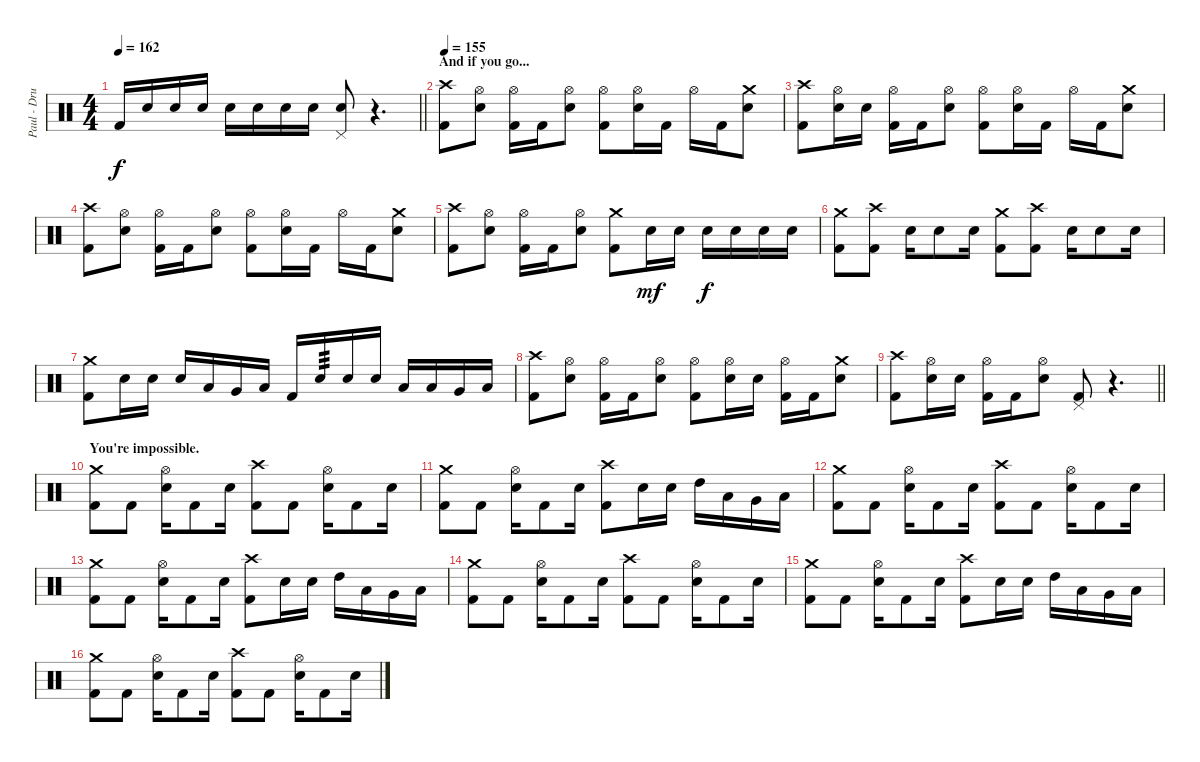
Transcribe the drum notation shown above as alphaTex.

\track ("Paul - Drums" "Paul - Dru") {instrument percussion}
\staff {score}
\articulation defaults
\ts (4 4)
\tempo 162
\clef neutral
\barLineRight lightlight
\ks c "Kick (hit) 2".16{dy f} "Electric Snare (hit)".16 "Electric Snare (hit)".16 "Electric Snare (hit)".16 "Electric Snare (hit)".16 "Electric Snare (hit)".16 "Electric Snare (hit)".16 "Electric Snare (hit)".16
("Pedal Hi-Hat (hit)" "Electric Snare (hit)").8 r.4{d} |
\section ("" "And if you go...")
\tempo 155
("Crash high (hit)" "Kick (hit) 2").8 ("Hi-Hat (open)" "Electric Snare (hit)").8 ("Hi-Hat (open)" "Kick (hit) 2").16 "Kick (hit) 2".16 ("Hi-Hat (open)" "Electric Snare (hit)").8 ("Hi-Hat (open)" "Kick (hit) 2").8 ("Hi-Hat (open)" "Electric Snare (hit)").16 "Kick (hit) 2".16 "Hi-Hat (open)".16 "Kick (hit) 2".16 ("Crash medium (hit)" "Electric Snare (hit)").8 |
("Crash high (hit)" "Kick (hit) 2").8 ("Hi-Hat (open)" "Electric Snare (hit)").16 "Electric Snare (hit)".16 ("Hi-Hat (open)" "Kick (hit) 2").16 "Kick (hit) 2".16 ("Hi-Hat (open)" "Electric Snare (hit)").8 ("Hi-Hat (open)" "Kick (hit) 2").8 ("Hi-Hat (open)" "Electric Snare (hit)").16 "Kick (hit) 2".16 "Hi-Hat (open)".16 "Kick (hit) 2".16 ("Crash medium (hit)" "Electric Snare (hit)").8 |
("Crash high (hit)" "Kick (hit) 2").8 ("Hi-Hat (open)" "Electric Snare (hit)").8 ("Hi-Hat (open)" "Kick (hit) 2").16 "Kick (hit) 2".16 ("Hi-Hat (open)" "Electric Snare (hit)").8 ("Hi-Hat (open)" "Kick (hit) 2").8 ("Hi-Hat (open)" "Electric Snare (hit)").16 "Kick (hit) 2".16 "Hi-Hat (open)".16 "Kick (hit) 2".16 ("Crash medium (hit)" "Electric Snare (hit)").8 |
("Crash high (hit)" "Kick (hit) 2").8 ("Hi-Hat (open)" "Electric Snare (hit)").8 ("Hi-Hat (open)" "Kick (hit) 2").16 "Kick (hit) 2".16 ("Hi-Hat (open)" "Electric Snare (hit)").8 ("Crash medium (hit)" "Kick (hit) 2").8 "Electric Snare (hit)".16{dy mf} "Electric Snare (hit)".16 "Electric Snare (hit)".16{dy f} "Electric Snare (hit)".16 "Electric Snare (hit)".16 "Electric Snare (hit)".16 |
("Crash medium (hit)" "Kick (hit) 2").8 ("Crash high (hit)" "Kick (hit) 2").8 "Electric Snare (hit)".16 "Electric Snare (hit)".8 "Electric Snare (hit)".16 ("Crash medium (hit)" "Kick (hit) 2").8 ("Crash high (hit)" "Kick (hit) 2").8 "Electric Snare (hit)".16 "Electric Snare (hit)".8 "Electric Snare (hit)".16 |
("Crash medium (hit)" "Kick (hit) 2").8 "Electric Snare (hit)".16 "Electric Snare (hit)".16 "Electric Snare (hit)".16 "Low Tom (hit)".16 "Very Low Tom (hit)".16 "Low Floor Tom (hit)".16 "Kick (hit) 2".16 "Electric Snare (hit)".16{tp 3} "Electric Snare (hit)".16 "Electric Snare (hit)".16 "Low Tom (hit)".16 "Low Tom (hit)".16 "Very Low Tom (hit)".16 "Low Floor Tom (hit)".16 |
("Crash high (hit)" "Kick (hit) 2").8 ("Hi-Hat (open)" "Electric Snare (hit)").8 ("Hi-Hat (open)" "Kick (hit) 2").16 "Kick (hit) 2".16 ("Hi-Hat (open)" "Electric Snare (hit)").8 ("Hi-Hat (open)" "Kick (hit) 2").8 ("Hi-Hat (open)" "Electric Snare (hit)").16 "Electric Snare (hit)".16 ("Hi-Hat (open)" "Kick (hit) 2").16 "Kick (hit) 2".16 ("Crash medium (hit)" "Electric Snare (hit)").8 |
\barLineRight lightlight
("Crash high (hit)" "Kick (hit) 2").8 ("Hi-Hat (open)" "Electric Snare (hit)").16 "Electric Snare (hit)".16 ("Hi-Hat (open)" "Kick (hit) 2").16 "Kick (hit) 2".16 ("Hi-Hat (open)" "Electric Snare (hit)").8 ("Pedal Hi-Hat (hit)" "Kick (hit) 2").8 r.4{d} |
\section ("" "You're impossible.")
("Crash medium (hit)" "Kick (hit) 2").8 "Kick (hit) 2".8 ("Hi-Hat (open)" "Electric Snare (hit)").16 "Kick (hit) 2".8 "Electric Snare (hit)".16 ("Crash high (hit)" "Kick (hit) 2").8 "Kick (hit) 2".8 ("Hi-Hat (open)" "Electric Snare (hit)").16 "Kick (hit) 2".8 "Electric Snare (hit)".16 |
("Crash medium (hit)" "Kick (hit) 2").8 "Kick (hit) 2".8 ("Hi-Hat (open)" "Electric Snare (hit)").16 "Kick (hit) 2".8 "Electric Snare (hit)".16 ("Crash high (hit)" "Kick (hit) 2").8 "Electric Snare (hit)".16 "Electric Snare (hit)".16 "High Tom (hit)".16 "Low Tom (hit)".16 "Very Low Tom (hit)".16 "Low Floor Tom (hit)".16 |
("Crash medium (hit)" "Kick (hit) 2").8 "Kick (hit) 2".8 ("Hi-Hat (open)" "Electric Snare (hit)").16 "Kick (hit) 2".8 "Electric Snare (hit)".16 ("Crash high (hit)" "Kick (hit) 2").8 "Kick (hit) 2".8 ("Hi-Hat (open)" "Electric Snare (hit)").16 "Kick (hit) 2".8 "Electric Snare (hit)".16 |
("Crash medium (hit)" "Kick (hit) 2").8 "Kick (hit) 2".8 ("Hi-Hat (open)" "Electric Snare (hit)").16 "Kick (hit) 2".8 "Electric Snare (hit)".16 ("Crash high (hit)" "Kick (hit) 2").8 "Electric Snare (hit)".16 "Electric Snare (hit)".16 "High Tom (hit)".16 "Low Tom (hit)".16 "Very Low Tom (hit)".16 "Low Floor Tom (hit)".16 |
("Crash medium (hit)" "Kick (hit) 2").8 "Kick (hit) 2".8 ("Hi-Hat (open)" "Electric Snare (hit)").16 "Kick (hit) 2".8 "Electric Snare (hit)".16 ("Crash high (hit)" "Kick (hit) 2").8 "Kick (hit) 2".8 ("Hi-Hat (open)" "Electric Snare (hit)").16 "Kick (hit) 2".8 "Electric Snare (hit)".16 |
("Crash medium (hit)" "Kick (hit) 2").8 "Kick (hit) 2".8 ("Hi-Hat (open)" "Electric Snare (hit)").16 "Kick (hit) 2".8 "Electric Snare (hit)".16 ("Crash high (hit)" "Kick (hit) 2").8 "Electric Snare (hit)".16 "Electric Snare (hit)".16 "High Tom (hit)".16 "Low Tom (hit)".16 "Very Low Tom (hit)".16 "Low Floor Tom (hit)".16 |
("Crash medium (hit)" "Kick (hit) 2").8 "Kick (hit) 2".8 ("Hi-Hat (open)" "Electric Snare (hit)").16 "Kick (hit) 2".8 "Electric Snare (hit)".16 ("Crash high (hit)" "Kick (hit) 2").8 "Kick (hit) 2".8 ("Hi-Hat (open)" "Electric Snare (hit)").16 "Kick (hit) 2".8 "Electric Snare (hit)".16
